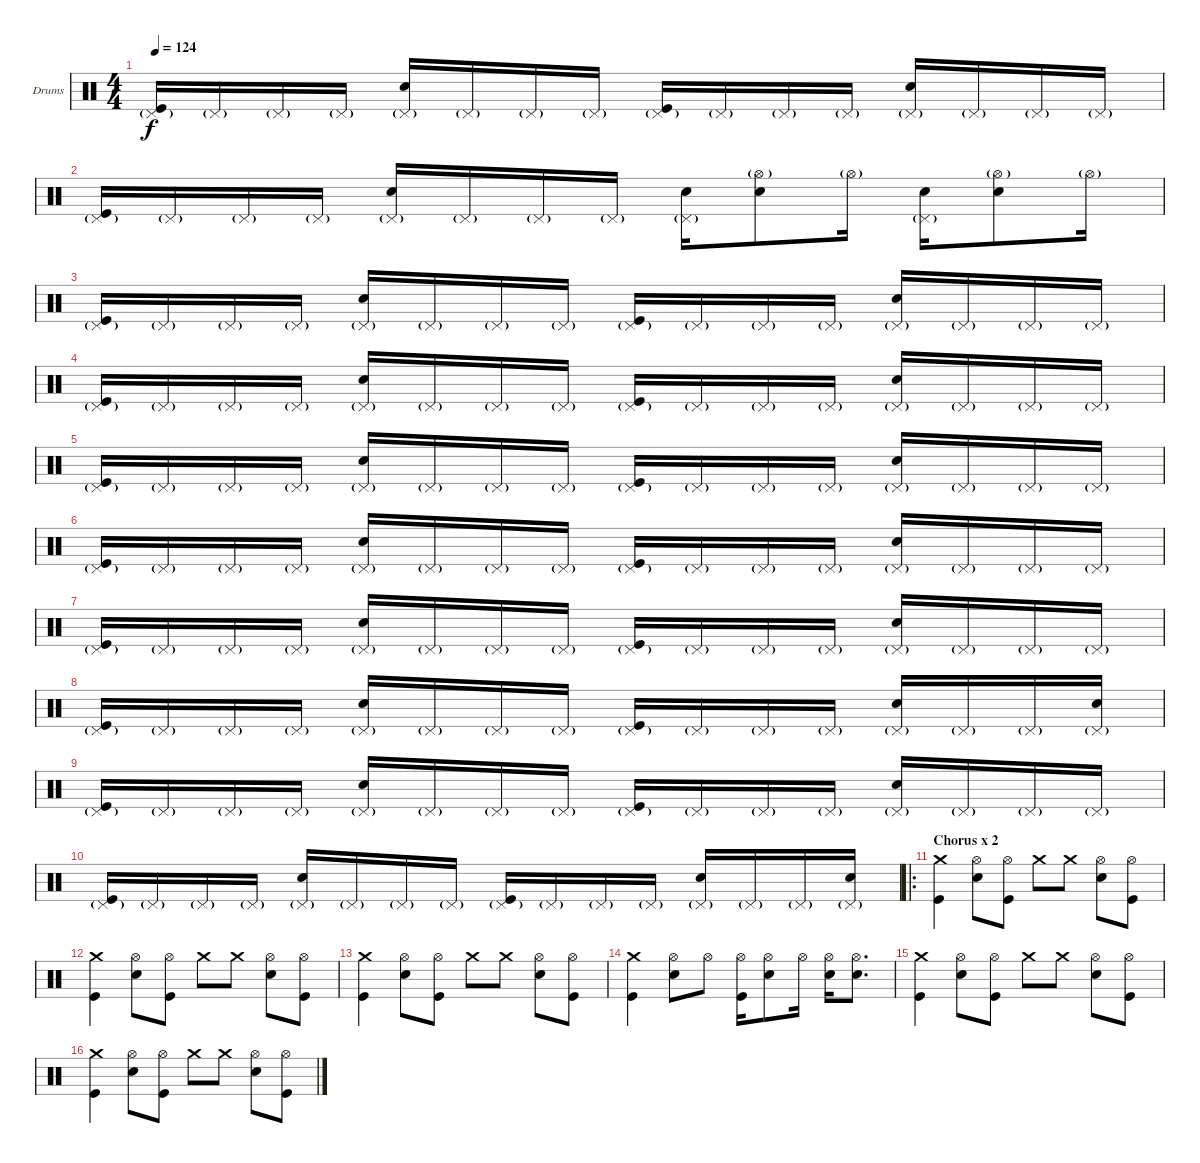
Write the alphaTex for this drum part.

\bracketExtendMode groupsimilarinstruments
\firstSystemTrackNameOrientation horizontal
\otherSystemsTrackNameOrientation horizontal
\track ("Drumkit" "Drums") {instrument percussion}
\staff {score}
\articulation defaults
\ts (4 4)
\tempo 124
\clef neutral
\ks c
("Kick (hit)" "Pedal Hi-Hat (hit)"{g}).16{dy f} "Pedal Hi-Hat (hit)"{g}.16 "Pedal Hi-Hat (hit)"{g}.16 "Pedal Hi-Hat (hit)"{g}.16 ("Snare (hit) 2" "Pedal Hi-Hat (hit)"{g}).16 "Pedal Hi-Hat (hit)"{g}.16 "Pedal Hi-Hat (hit)"{g}.16 "Pedal Hi-Hat (hit)"{g}.16 ("Kick (hit)" "Pedal Hi-Hat (hit)"{g}).16 "Pedal Hi-Hat (hit)"{g}.16 "Pedal Hi-Hat (hit)"{g}.16 "Pedal Hi-Hat (hit)"{g}.16 ("Snare (hit) 2" "Pedal Hi-Hat (hit)"{g}).16 "Pedal Hi-Hat (hit)"{g}.16 "Pedal Hi-Hat (hit)"{g}.16 "Pedal Hi-Hat (hit)"{g}.16 |
("Kick (hit)" "Pedal Hi-Hat (hit)"{g}).16 "Pedal Hi-Hat (hit)"{g}.16 "Pedal Hi-Hat (hit)"{g}.16 "Pedal Hi-Hat (hit)"{g}.16 ("Snare (hit) 2" "Pedal Hi-Hat (hit)"{g}).16 "Pedal Hi-Hat (hit)"{g}.16 "Pedal Hi-Hat (hit)"{g}.16 "Pedal Hi-Hat (hit)"{g}.16 ("Snare (hit) 2" "Pedal Hi-Hat (hit)"{g}).16 ("Snare (hit) 2" "Hi-Hat (open)"{g}).8 "Hi-Hat (open)"{g}.16 ("Snare (hit) 2" "Pedal Hi-Hat (hit)"{g}).16 ("Snare (hit) 2" "Hi-Hat (open)"{g}).8 "Hi-Hat (open)"{g}.16 |
("Kick (hit)" "Pedal Hi-Hat (hit)"{g}).16 "Pedal Hi-Hat (hit)"{g}.16 "Pedal Hi-Hat (hit)"{g}.16 "Pedal Hi-Hat (hit)"{g}.16 ("Snare (hit) 2" "Pedal Hi-Hat (hit)"{g}).16 "Pedal Hi-Hat (hit)"{g}.16 "Pedal Hi-Hat (hit)"{g}.16 "Pedal Hi-Hat (hit)"{g}.16 ("Kick (hit)" "Pedal Hi-Hat (hit)"{g}).16 "Pedal Hi-Hat (hit)"{g}.16 "Pedal Hi-Hat (hit)"{g}.16 "Pedal Hi-Hat (hit)"{g}.16 ("Snare (hit) 2" "Pedal Hi-Hat (hit)"{g}).16 "Pedal Hi-Hat (hit)"{g}.16 "Pedal Hi-Hat (hit)"{g}.16 "Pedal Hi-Hat (hit)"{g}.16 |
("Kick (hit)" "Pedal Hi-Hat (hit)"{g}).16 "Pedal Hi-Hat (hit)"{g}.16 "Pedal Hi-Hat (hit)"{g}.16 "Pedal Hi-Hat (hit)"{g}.16 ("Snare (hit) 2" "Pedal Hi-Hat (hit)"{g}).16 "Pedal Hi-Hat (hit)"{g}.16 "Pedal Hi-Hat (hit)"{g}.16 "Pedal Hi-Hat (hit)"{g}.16 ("Kick (hit)" "Pedal Hi-Hat (hit)"{g}).16 "Pedal Hi-Hat (hit)"{g}.16 "Pedal Hi-Hat (hit)"{g}.16 "Pedal Hi-Hat (hit)"{g}.16 ("Snare (hit) 2" "Pedal Hi-Hat (hit)"{g}).16 "Pedal Hi-Hat (hit)"{g}.16 "Pedal Hi-Hat (hit)"{g}.16 "Pedal Hi-Hat (hit)"{g}.16 |
("Kick (hit)" "Pedal Hi-Hat (hit)"{g}).16 "Pedal Hi-Hat (hit)"{g}.16 "Pedal Hi-Hat (hit)"{g}.16 "Pedal Hi-Hat (hit)"{g}.16 ("Snare (hit) 2" "Pedal Hi-Hat (hit)"{g}).16 "Pedal Hi-Hat (hit)"{g}.16 "Pedal Hi-Hat (hit)"{g}.16 "Pedal Hi-Hat (hit)"{g}.16 ("Kick (hit)" "Pedal Hi-Hat (hit)"{g}).16 "Pedal Hi-Hat (hit)"{g}.16 "Pedal Hi-Hat (hit)"{g}.16 "Pedal Hi-Hat (hit)"{g}.16 ("Snare (hit) 2" "Pedal Hi-Hat (hit)"{g}).16 "Pedal Hi-Hat (hit)"{g}.16 "Pedal Hi-Hat (hit)"{g}.16 "Pedal Hi-Hat (hit)"{g}.16 |
("Kick (hit)" "Pedal Hi-Hat (hit)"{g}).16 "Pedal Hi-Hat (hit)"{g}.16 "Pedal Hi-Hat (hit)"{g}.16 "Pedal Hi-Hat (hit)"{g}.16 ("Snare (hit) 2" "Pedal Hi-Hat (hit)"{g}).16 "Pedal Hi-Hat (hit)"{g}.16 "Pedal Hi-Hat (hit)"{g}.16 "Pedal Hi-Hat (hit)"{g}.16 ("Kick (hit)" "Pedal Hi-Hat (hit)"{g}).16 "Pedal Hi-Hat (hit)"{g}.16 "Pedal Hi-Hat (hit)"{g}.16 "Pedal Hi-Hat (hit)"{g}.16 ("Snare (hit) 2" "Pedal Hi-Hat (hit)"{g}).16 "Pedal Hi-Hat (hit)"{g}.16 "Pedal Hi-Hat (hit)"{g}.16 "Pedal Hi-Hat (hit)"{g}.16 |
("Kick (hit)" "Pedal Hi-Hat (hit)"{g}).16 "Pedal Hi-Hat (hit)"{g}.16 "Pedal Hi-Hat (hit)"{g}.16 "Pedal Hi-Hat (hit)"{g}.16 ("Snare (hit) 2" "Pedal Hi-Hat (hit)"{g}).16 "Pedal Hi-Hat (hit)"{g}.16 "Pedal Hi-Hat (hit)"{g}.16 "Pedal Hi-Hat (hit)"{g}.16 ("Kick (hit)" "Pedal Hi-Hat (hit)"{g}).16 "Pedal Hi-Hat (hit)"{g}.16 "Pedal Hi-Hat (hit)"{g}.16 "Pedal Hi-Hat (hit)"{g}.16 ("Snare (hit) 2" "Pedal Hi-Hat (hit)"{g}).16 "Pedal Hi-Hat (hit)"{g}.16 "Pedal Hi-Hat (hit)"{g}.16 "Pedal Hi-Hat (hit)"{g}.16 |
("Kick (hit)" "Pedal Hi-Hat (hit)"{g}).16 "Pedal Hi-Hat (hit)"{g}.16 "Pedal Hi-Hat (hit)"{g}.16 "Pedal Hi-Hat (hit)"{g}.16 ("Snare (hit) 2" "Pedal Hi-Hat (hit)"{g}).16 "Pedal Hi-Hat (hit)"{g}.16 "Pedal Hi-Hat (hit)"{g}.16 "Pedal Hi-Hat (hit)"{g}.16 ("Kick (hit)" "Pedal Hi-Hat (hit)"{g}).16 "Pedal Hi-Hat (hit)"{g}.16 "Pedal Hi-Hat (hit)"{g}.16 "Pedal Hi-Hat (hit)"{g}.16 ("Snare (hit) 2" "Pedal Hi-Hat (hit)"{g}).16 "Pedal Hi-Hat (hit)"{g}.16 "Pedal Hi-Hat (hit)"{g}.16 ("Snare (hit) 2" "Pedal Hi-Hat (hit)"{g}).16 |
("Kick (hit)" "Pedal Hi-Hat (hit)"{g}).16 "Pedal Hi-Hat (hit)"{g}.16 "Pedal Hi-Hat (hit)"{g}.16 "Pedal Hi-Hat (hit)"{g}.16 ("Snare (hit) 2" "Pedal Hi-Hat (hit)"{g}).16 "Pedal Hi-Hat (hit)"{g}.16 "Pedal Hi-Hat (hit)"{g}.16 "Pedal Hi-Hat (hit)"{g}.16 ("Kick (hit)" "Pedal Hi-Hat (hit)"{g}).16 "Pedal Hi-Hat (hit)"{g}.16 "Pedal Hi-Hat (hit)"{g}.16 "Pedal Hi-Hat (hit)"{g}.16 ("Snare (hit) 2" "Pedal Hi-Hat (hit)"{g}).16 "Pedal Hi-Hat (hit)"{g}.16 "Pedal Hi-Hat (hit)"{g}.16 "Pedal Hi-Hat (hit)"{g}.16 |
("Kick (hit)" "Pedal Hi-Hat (hit)"{g}).16 "Pedal Hi-Hat (hit)"{g}.16 "Pedal Hi-Hat (hit)"{g}.16 "Pedal Hi-Hat (hit)"{g}.16 ("Snare (hit) 2" "Pedal Hi-Hat (hit)"{g}).16 "Pedal Hi-Hat (hit)"{g}.16 "Pedal Hi-Hat (hit)"{g}.16 "Pedal Hi-Hat (hit)"{g}.16 ("Kick (hit)" "Pedal Hi-Hat (hit)"{g}).16 "Pedal Hi-Hat (hit)"{g}.16 "Pedal Hi-Hat (hit)"{g}.16 "Pedal Hi-Hat (hit)"{g}.16 ("Snare (hit) 2" "Pedal Hi-Hat (hit)"{g}).16 "Pedal Hi-Hat (hit)"{g}.16 "Pedal Hi-Hat (hit)"{g}.16 ("Snare (hit) 2" "Pedal Hi-Hat (hit)"{g}).16 |
\ro
\section ("" "Chorus x 2")
("Kick (hit)" "Crash medium (hit)").4 ("Snare (hit) 2" "Hi-Hat (open)").8 ("Kick (hit)" "Hi-Hat (open)").8 "Crash medium (hit)".8 "Crash medium (hit)".8 ("Snare (hit) 2" "Hi-Hat (open)").8 ("Kick (hit)" "Hi-Hat (open)").8 |
("Kick (hit)" "Crash medium (hit)").4 ("Snare (hit) 2" "Hi-Hat (open)").8 ("Kick (hit)" "Hi-Hat (open)").8 "Crash medium (hit)".8 "Crash medium (hit)".8 ("Snare (hit) 2" "Hi-Hat (open)").8 ("Kick (hit)" "Hi-Hat (open)").8 |
("Kick (hit)" "Crash medium (hit)").4 ("Snare (hit) 2" "Hi-Hat (open)").8 ("Kick (hit)" "Hi-Hat (open)").8 "Crash medium (hit)".8 "Crash medium (hit)".8 ("Snare (hit) 2" "Hi-Hat (open)").8 ("Kick (hit)" "Hi-Hat (open)").8 |
("Kick (hit)" "Crash medium (hit)").4 ("Snare (hit) 2" "Hi-Hat (open)").8 "Hi-Hat (open)".8 ("Kick (hit)" "Hi-Hat (open)").16 ("Snare (hit) 2" "Hi-Hat (open)").8 "Hi-Hat (open)".16 ("Snare (hit) 2" "Hi-Hat (open)").16 ("Snare (hit) 2" "Hi-Hat (open)").8{d} |
("Kick (hit)" "Crash medium (hit)").4 ("Snare (hit) 2" "Hi-Hat (open)").8 ("Kick (hit)" "Hi-Hat (open)").8 "Crash medium (hit)".8 "Crash medium (hit)".8 ("Snare (hit) 2" "Hi-Hat (open)").8 ("Kick (hit)" "Hi-Hat (open)").8 |
("Kick (hit)" "Crash medium (hit)").4 ("Snare (hit) 2" "Hi-Hat (open)").8 ("Kick (hit)" "Hi-Hat (open)").8 "Crash medium (hit)".8 "Crash medium (hit)".8 ("Snare (hit) 2" "Hi-Hat (open)").8 ("Kick (hit)" "Hi-Hat (open)").8
